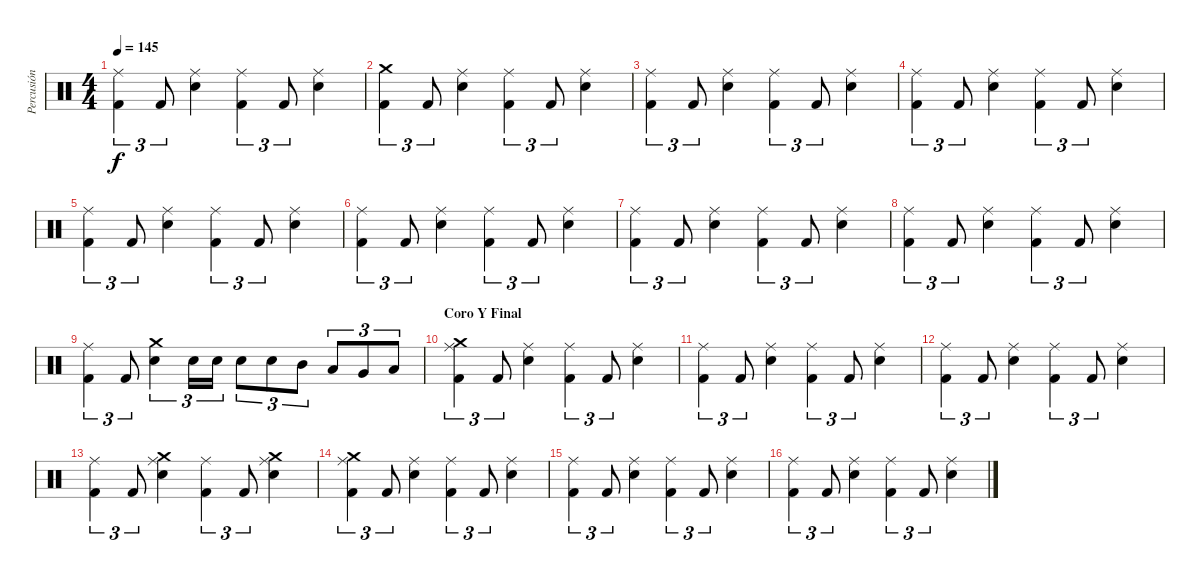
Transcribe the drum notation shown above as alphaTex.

\track ("Percusión" "Percusión") {instrument percussion}
\staff {score}
\articulation defaults
\ts (4 4)
\tempo 145
\clef neutral
\ks c
("Ride (middle)" "Kick (hit) 2").4{tu (3 2) dy f} "Kick (hit) 2".8{tu (3 2)} ("Ride (middle)" "Snare (hit) 2").4 ("Ride (middle)" "Kick (hit) 2").4{tu (3 2)} "Kick (hit) 2".8{tu (3 2)} ("Ride (middle)" "Snare (hit) 2").4 |
("Crash medium (hit)" "Kick (hit) 2").4{tu (3 2)} "Kick (hit) 2".8{tu (3 2)} ("Ride (middle)" "Snare (hit) 2").4 ("Ride (middle)" "Kick (hit) 2").4{tu (3 2)} "Kick (hit) 2".8{tu (3 2)} ("Ride (middle)" "Snare (hit) 2").4 |
("Ride (middle)" "Kick (hit) 2").4{tu (3 2)} "Kick (hit) 2".8{tu (3 2)} ("Ride (middle)" "Snare (hit) 2").4 ("Ride (middle)" "Kick (hit) 2").4{tu (3 2)} "Kick (hit) 2".8{tu (3 2)} ("Ride (middle)" "Snare (hit) 2").4 |
("Ride (middle)" "Kick (hit) 2").4{tu (3 2)} "Kick (hit) 2".8{tu (3 2)} ("Ride (middle)" "Snare (hit) 2").4 ("Ride (middle)" "Kick (hit) 2").4{tu (3 2)} "Kick (hit) 2".8{tu (3 2)} ("Ride (middle)" "Snare (hit) 2").4 |
("Ride (middle)" "Kick (hit) 2").4{tu (3 2)} "Kick (hit) 2".8{tu (3 2)} ("Ride (middle)" "Snare (hit) 2").4 ("Ride (middle)" "Kick (hit) 2").4{tu (3 2)} "Kick (hit) 2".8{tu (3 2)} ("Ride (middle)" "Snare (hit) 2").4 |
("Ride (middle)" "Kick (hit) 2").4{tu (3 2)} "Kick (hit) 2".8{tu (3 2)} ("Ride (middle)" "Snare (hit) 2").4 ("Ride (middle)" "Kick (hit) 2").4{tu (3 2)} "Kick (hit) 2".8{tu (3 2)} ("Ride (middle)" "Snare (hit) 2").4 |
("Ride (middle)" "Kick (hit) 2").4{tu (3 2)} "Kick (hit) 2".8{tu (3 2)} ("Ride (middle)" "Snare (hit) 2").4 ("Ride (middle)" "Kick (hit) 2").4{tu (3 2)} "Kick (hit) 2".8{tu (3 2)} ("Ride (middle)" "Snare (hit) 2").4 |
("Ride (middle)" "Kick (hit) 2").4{tu (3 2)} "Kick (hit) 2".8{tu (3 2)} ("Ride (middle)" "Snare (hit) 2").4 ("Ride (middle)" "Kick (hit) 2").4{tu (3 2)} "Kick (hit) 2".8{tu (3 2)} ("Ride (middle)" "Snare (hit) 2").4 |
("Kick (hit) 2" "Ride (middle)").4{tu (3 2)} "Kick (hit) 2".8{tu (3 2)} ("Snare (hit) 2" "Crash medium (hit)").4{tu (3 2)} "Snare (hit) 2".16{tu (3 2)} "Snare (hit) 2".16{tu (3 2)} "Snare (hit) 2".8{tu (3 2)} "Snare (hit) 2".8{tu (3 2)} "Mid Tom (hit)".8{tu (3 2)} "Low Tom (hit)".8{tu (3 2)} "Very Low Tom (hit)".8{tu (3 2)} "Low Floor Tom (hit)".8{tu (3 2)} |
\section ("" "Coro Y Final")
("Kick (hit) 2" "Ride (middle)" "Crash medium (hit)").4{tu (3 2)} "Kick (hit) 2".8{tu (3 2)} ("Snare (hit) 2" "Ride (middle)").4 ("Kick (hit) 2" "Ride (middle)").4{tu (3 2)} "Kick (hit) 2".8{tu (3 2)} ("Snare (hit) 2" "Ride (middle)").4 |
("Kick (hit) 2" "Ride (middle)").4{tu (3 2)} "Kick (hit) 2".8{tu (3 2)} ("Snare (hit) 2" "Ride (middle)").4 ("Kick (hit) 2" "Ride (middle)").4{tu (3 2)} "Kick (hit) 2".8{tu (3 2)} ("Snare (hit) 2" "Ride (middle)").4 |
("Kick (hit) 2" "Ride (middle)").4{tu (3 2)} "Kick (hit) 2".8{tu (3 2)} ("Snare (hit) 2" "Ride (middle)").4 ("Kick (hit) 2" "Ride (middle)").4{tu (3 2)} "Kick (hit) 2".8{tu (3 2)} ("Snare (hit) 2" "Ride (middle)").4 |
("Kick (hit) 2" "Ride (middle)").4{tu (3 2)} "Kick (hit) 2".8{tu (3 2)} ("Snare (hit) 2" "Ride (middle)" "Crash medium (hit)").4 ("Kick (hit) 2" "Ride (middle)").4{tu (3 2)} "Kick (hit) 2".8{tu (3 2)} ("Snare (hit) 2" "Ride (middle)" "Crash medium (hit)").4 |
("Kick (hit) 2" "Ride (middle)" "Crash medium (hit)").4{tu (3 2)} "Kick (hit) 2".8{tu (3 2)} ("Snare (hit) 2" "Ride (middle)").4 ("Kick (hit) 2" "Ride (middle)").4{tu (3 2)} "Kick (hit) 2".8{tu (3 2)} ("Snare (hit) 2" "Ride (middle)").4 |
("Kick (hit) 2" "Ride (middle)").4{tu (3 2)} "Kick (hit) 2".8{tu (3 2)} ("Snare (hit) 2" "Ride (middle)").4 ("Kick (hit) 2" "Ride (middle)").4{tu (3 2)} "Kick (hit) 2".8{tu (3 2)} ("Snare (hit) 2" "Ride (middle)").4 |
("Kick (hit) 2" "Ride (middle)").4{tu (3 2)} "Kick (hit) 2".8{tu (3 2)} ("Snare (hit) 2" "Ride (middle)").4 ("Kick (hit) 2" "Ride (middle)").4{tu (3 2)} "Kick (hit) 2".8{tu (3 2)} ("Snare (hit) 2" "Ride (middle)").4
